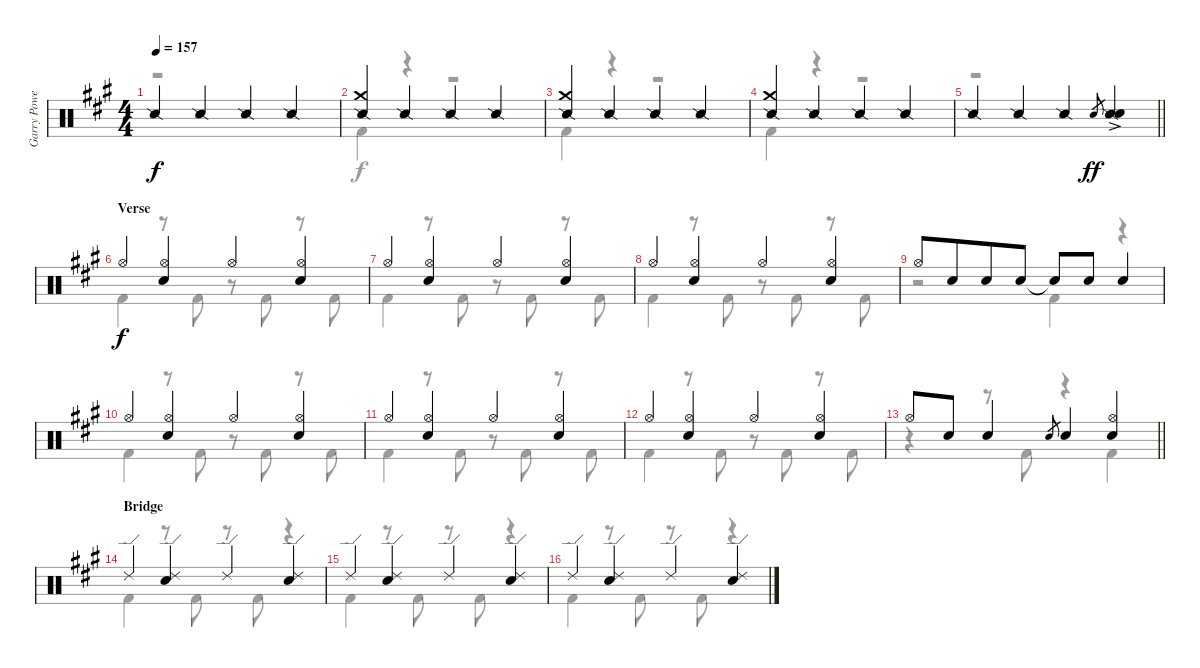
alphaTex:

\track ("Garry Powell" "Garry Powe") {instrument percussion}
\staff {score}
\articulation defaults
\voice
\ts (4 4)
\tempo 157
\clef neutral
\ks a "Snare (side stick) 2".4{dy f} "Snare (side stick) 2".4 "Snare (side stick) 2".4 "Snare (side stick) 2".4
|
("Crash medium (hit)" "Snare (side stick) 2").4 "Snare (side stick) 2".4 "Snare (side stick) 2".4 "Snare (side stick) 2".4 |
("Crash medium (hit)" "Snare (side stick) 2").4 "Snare (side stick) 2".4 "Snare (side stick) 2".4 "Snare (side stick) 2".4 |
("Crash medium (hit)" "Snare (side stick) 2").4 "Snare (side stick) 2".4 "Snare (side stick) 2".4 "Snare (side stick) 2".4 |
\barLineRight lightlight "Snare (side stick) 2".4 "Snare (side stick) 2".4 "Snare (side stick) 2".4 "Electric Snare (hit)".8{gr dy ff}
("Snare (side stick) 2" "Electric Snare (hit)"{ac}).4 |
\section ("" "Verse")
"Hi-Hat (open)".4{dy f} ("Hi-Hat (open)" "Electric Snare (hit)").4 "Hi-Hat (open)".4 ("Hi-Hat (open)" "Electric Snare (hit)").4 |
"Hi-Hat (open)".4 ("Hi-Hat (open)" "Electric Snare (hit)").4 "Hi-Hat (open)".4 ("Hi-Hat (open)" "Electric Snare (hit)").4 |
"Hi-Hat (open)".4 ("Hi-Hat (open)" "Electric Snare (hit)").4 "Hi-Hat (open)".4 ("Hi-Hat (open)" "Electric Snare (hit)").4 |
"Hi-Hat (open)".8 "Electric Snare (hit)".8{beam merge} "Electric Snare (hit)".8 "Electric Snare (hit)".8 "Snare (hit)"{t}.8 "Electric Snare (hit)".8 "Electric Snare (hit)".4 |
"Hi-Hat (open)".4 ("Hi-Hat (open)" "Electric Snare (hit)").4 "Hi-Hat (open)".4 ("Hi-Hat (open)" "Electric Snare (hit)").4 |
"Hi-Hat (open)".4 ("Hi-Hat (open)" "Electric Snare (hit)").4 "Hi-Hat (open)".4 ("Hi-Hat (open)" "Electric Snare (hit)").4 |
"Hi-Hat (open)".4 ("Hi-Hat (open)" "Electric Snare (hit)").4 "Hi-Hat (open)".4 ("Hi-Hat (open)" "Electric Snare (hit)").4 |
\barLineRight lightlight "Hi-Hat (open)".8 "Electric Snare (hit)".8{beam merge} "Electric Snare (hit)".4 "Electric Snare (hit)".8{gr} "Electric Snare (hit)".4
("Hi-Hat (open)" "Electric Snare (hit)").4 |
\section ("" "Bridge")
"Ride (edge) 2".4 ("Ride (edge) 2" "Electric Snare (hit)").4 "Ride (edge) 2".4 ("Ride (edge) 2" "Electric Snare (hit)").4 |
"Ride (edge) 2".4 ("Ride (edge) 2" "Electric Snare (hit)").4 "Ride (edge) 2".4 ("Ride (edge) 2" "Electric Snare (hit)").4 |
"Ride (edge) 2".4 ("Ride (edge) 2" "Electric Snare (hit)").4 "Ride (edge) 2".4 ("Ride (edge) 2" "Electric Snare (hit)").4
\voice
\clef neutral
\ottava regular
\simile none
\ks a
r.1{dy f} |
"Kick (hit) 2".4 r.4 r.2 |
"Kick (hit) 2".4 r.4 r.2 |
"Kick (hit) 2".4 r.4 r.2 |
\barLineRight lightlight
r.1 |
"Kick (hit) 2".4 r.8 "Kick (hit) 2".8 r.8 "Kick (hit) 2".8 r.8 "Kick (hit) 2".8 |
"Kick (hit) 2".4 r.8 "Kick (hit) 2".8 r.8 "Kick (hit) 2".8 r.8 "Kick (hit) 2".8 |
"Kick (hit) 2".4 r.8 "Kick (hit) 2".8 r.8 "Kick (hit) 2".8 r.8 "Kick (hit) 2".8 |
r.2 "Kick (hit) 2".4 r.4 |
"Kick (hit) 2".4 r.8 "Kick (hit) 2".8 r.8 "Kick (hit) 2".8 r.8 "Kick (hit) 2".8 |
"Kick (hit) 2".4 r.8 "Kick (hit) 2".8 r.8 "Kick (hit) 2".8 r.8 "Kick (hit) 2".8 |
"Kick (hit) 2".4 r.8 "Kick (hit) 2".8 r.8 "Kick (hit) 2".8 r.8 "Kick (hit) 2".8 |
\barLineRight lightlight
r.4 r.8 "Kick (hit) 2".8 r.4 "Kick (hit) 2".4 |
"Kick (hit) 2".4 r.8 "Kick (hit) 2".8 r.8 "Kick (hit) 2".8 r.4 |
"Kick (hit) 2".4 r.8 "Kick (hit) 2".8 r.8 "Kick (hit) 2".8 r.4 |
"Kick (hit) 2".4 r.8 "Kick (hit) 2".8 r.8 "Kick (hit) 2".8 r.4
